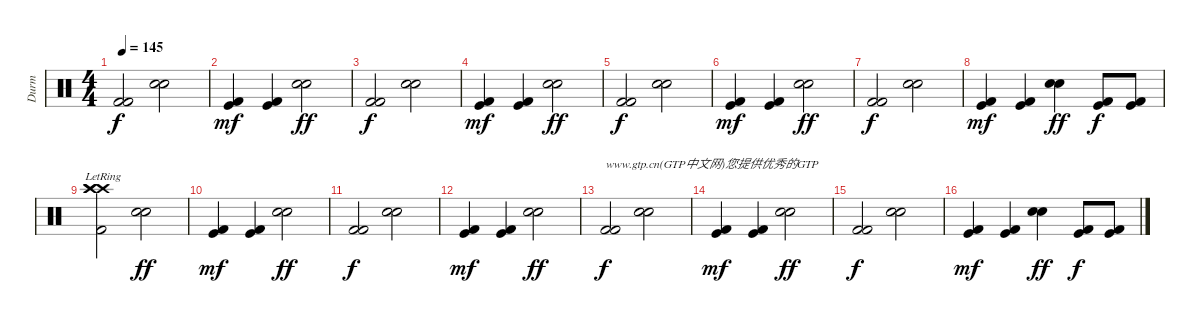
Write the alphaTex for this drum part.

\track ("Durm" "Durm") {instrument percussion}
\staff {score}
\articulation defaults
\ts (4 4)
\tempo 145
\clef neutral
\ks c
("Kick (hit) 2" "Kick (hit) 2").2{dy f} ("Snare (hit) 2" "Snare (hit) 2").2 |
("Kick (hit)" "Kick (hit) 2").4{dy mf} ("Kick (hit)" "Kick (hit) 2").4 ("Snare (hit) 2" "Snare (hit) 2").2{dy ff} |
("Kick (hit) 2" "Kick (hit) 2").2{dy f} ("Snare (hit) 2" "Snare (hit) 2").2 |
("Kick (hit)" "Kick (hit) 2").4{dy mf} ("Kick (hit)" "Kick (hit) 2").4 ("Snare (hit) 2" "Snare (hit) 2").2{dy ff} |
("Kick (hit) 2" "Kick (hit) 2").2{dy f} ("Snare (hit) 2" "Snare (hit) 2").2 |
("Kick (hit)" "Kick (hit) 2").4{dy mf} ("Kick (hit)" "Kick (hit) 2").4 ("Snare (hit) 2" "Snare (hit) 2").2{dy ff} |
("Kick (hit) 2" "Kick (hit) 2").2{dy f} ("Snare (hit) 2" "Snare (hit) 2").2 |
("Kick (hit)" "Kick (hit) 2").4{dy mf} ("Kick (hit)" "Kick (hit) 2").4 ("Snare (hit) 2" "Snare (hit) 2").4{dy ff} ("Kick (hit)" "Kick (hit) 2").8{dy f} ("Kick (hit)" "Kick (hit) 2").8 |
("Crash high (hit)" "Kick (hit) 2" "Crash high (hit)"{lr} "Crash high (hit)"{lr}).2 ("Snare (hit) 2" "Snare (hit) 2").2{dy ff} |
("Kick (hit)" "Kick (hit) 2").4{dy mf} ("Kick (hit)" "Kick (hit) 2").4 ("Snare (hit) 2" "Snare (hit) 2").2{dy ff} |
("Kick (hit) 2" "Kick (hit) 2").2{dy f} ("Snare (hit) 2" "Snare (hit) 2").2 |
("Kick (hit)" "Kick (hit) 2").4{dy mf} ("Kick (hit)" "Kick (hit) 2").4 ("Snare (hit) 2" "Snare (hit) 2").2{dy ff} |
("Kick (hit) 2" "Kick (hit) 2").2{txt "www.gtp.cn(GTP中文网)您提供优秀的GTP" dy f} ("Snare (hit) 2" "Snare (hit) 2").2 |
("Kick (hit)" "Kick (hit) 2").4{dy mf} ("Kick (hit)" "Kick (hit) 2").4 ("Snare (hit) 2" "Snare (hit) 2").2{dy ff} |
("Kick (hit) 2" "Kick (hit) 2").2{dy f} ("Snare (hit) 2" "Snare (hit) 2").2 |
("Kick (hit)" "Kick (hit) 2").4{dy mf} ("Kick (hit)" "Kick (hit) 2").4 ("Snare (hit) 2" "Snare (hit) 2").4{dy ff} ("Kick (hit)" "Kick (hit) 2").8{dy f} ("Kick (hit)" "Kick (hit) 2").8
